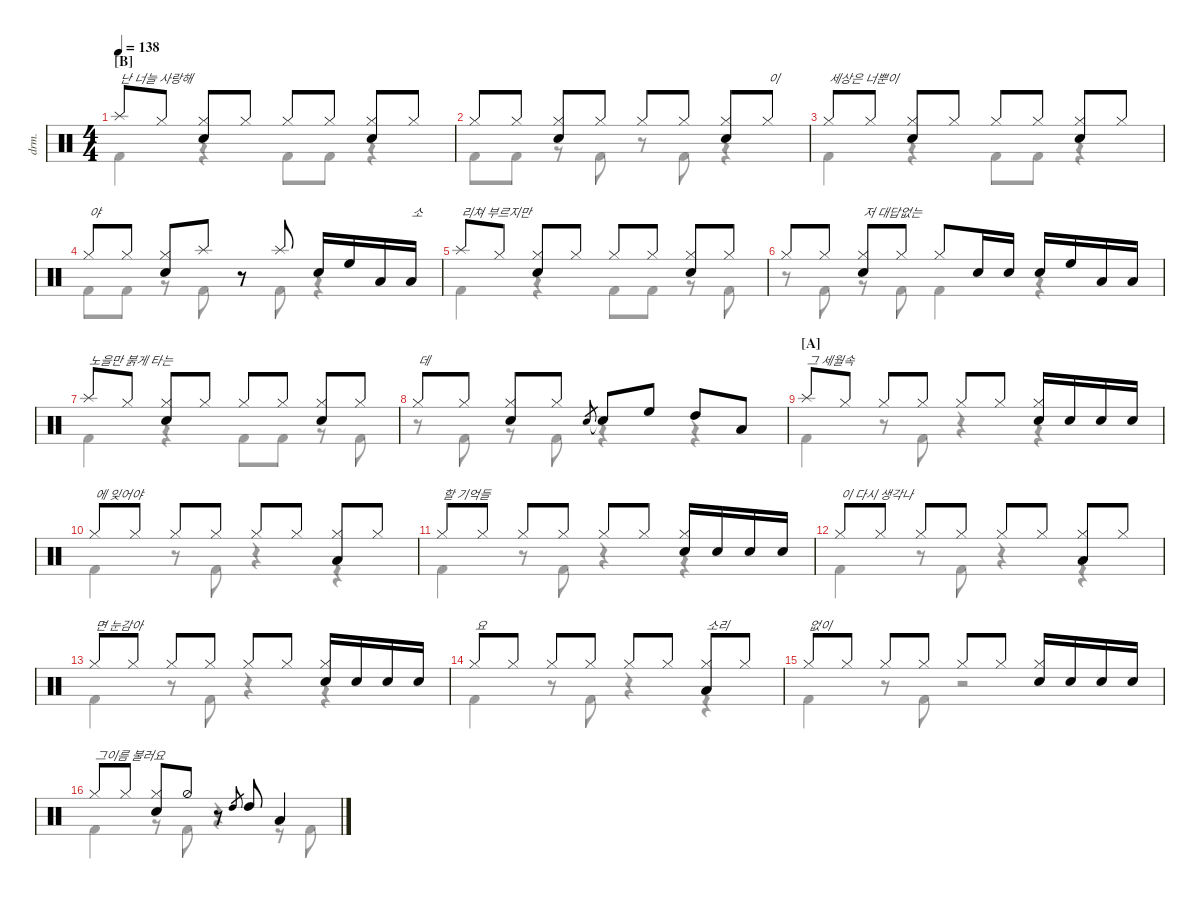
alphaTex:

\defaultSystemsLayout 4
\hideDynamics
\bracketExtendMode nobrackets
\track ("Drumkit" "drm.") {instrument percussion}
\staff {score}
\articulation defaults
\voice
\ts (4 4)
\section ("B" "")
\tempo 138
\clef neutral
\ks c "Splash (hit)".8{txt "난 너늘 사랑해" dy mf} "Hi-Hat (closed)".8
("Hi-Hat (closed)" "Snare (hit) 2").8 "Hi-Hat (closed)".8 "Hi-Hat (closed)".8 "Hi-Hat (closed)".8 ("Hi-Hat (closed)" "Snare (hit) 2").8 "Hi-Hat (closed)".8 |
"Hi-Hat (closed)".8 "Hi-Hat (closed)".8 ("Hi-Hat (closed)" "Snare (hit) 2").8 "Hi-Hat (closed)".8 "Hi-Hat (closed)".8 "Hi-Hat (closed)".8 ("Hi-Hat (closed)" "Snare (hit) 2").8 "Hi-Hat (closed)".8{txt "이"} |
"Hi-Hat (closed)".8{txt "세상은 너뿐이"} "Hi-Hat (closed)".8 ("Hi-Hat (closed)" "Snare (hit) 2").8 "Hi-Hat (closed)".8 "Hi-Hat (closed)".8 "Hi-Hat (closed)".8 ("Hi-Hat (closed)" "Snare (hit) 2").8 "Hi-Hat (closed)".8 |
"Hi-Hat (closed)".8{txt "야"} "Hi-Hat (closed)".8 ("Hi-Hat (closed)" "Snare (hit) 2").8 "Splash (hit)".8 r.8 "Splash (hit)".8 "Snare (hit) 2".16 "High Floor Tom (hit)".16 "Low Tom (hit)".16 "Low Tom (hit)".16{txt "소"} |
"Splash (hit)".8{txt "리쳐 부르지만"} "Hi-Hat (closed)".8 ("Hi-Hat (closed)" "Snare (hit) 2").8 "Hi-Hat (closed)".8 "Hi-Hat (closed)".8 "Hi-Hat (closed)".8 ("Hi-Hat (closed)" "Snare (hit) 2").8 "Hi-Hat (closed)".8 |
"Hi-Hat (closed)".8 "Hi-Hat (closed)".8 ("Hi-Hat (closed)" "Snare (hit) 2").8{txt "저 대답없는"} "Hi-Hat (closed)".8 "Hi-Hat (closed)".8 "Snare (hit) 2".16 "Snare (hit) 2".16 "Snare (hit) 2".16 "High Floor Tom (hit)".16 "Low Tom (hit)".16 "Low Tom (hit)".16 |
"Splash (hit)".8{txt "노을만 붉게 타는"} "Hi-Hat (closed)".8 ("Hi-Hat (closed)" "Snare (hit) 2").8 "Hi-Hat (closed)".8 "Hi-Hat (closed)".8 "Hi-Hat (closed)".8 ("Hi-Hat (closed)" "Snare (hit) 2").8 "Hi-Hat (closed)".8 |
"Hi-Hat (closed)".8{txt "데"} "Hi-Hat (closed)".8 ("Hi-Hat (closed)" "Snare (hit) 2").8 "Hi-Hat (closed)".8 "Snare (hit) 2".8{gr} "Snare (hit) 2"{t}.8 "High Floor Tom (hit)".8 "High Tom (hit)".8 "Low Tom (hit)".8 |
\section ("A" "")
"Splash (hit)".8{txt "그 세월속"} "Hi-Hat (closed)".8 "Hi-Hat (closed)".8 "Hi-Hat (closed)".8 "Hi-Hat (closed)".8 "Hi-Hat (closed)".8 ("Hi-Hat (closed)" "Snare (hit) 2").16 "Snare (hit) 2".16 "Snare (hit) 2".16 "Snare (hit) 2".16 |
"Hi-Hat (closed)".8{txt "에 잊어야"} "Hi-Hat (closed)".8 "Hi-Hat (closed)".8 "Hi-Hat (closed)".8 "Hi-Hat (closed)".8 "Hi-Hat (closed)".8 ("Hi-Hat (closed)" "Low Tom (hit)").8 "Hi-Hat (closed)".8 |
"Hi-Hat (closed)".8{txt "할 기억들"} "Hi-Hat (closed)".8 "Hi-Hat (closed)".8 "Hi-Hat (closed)".8 "Hi-Hat (closed)".8 "Hi-Hat (closed)".8 ("Hi-Hat (closed)" "Snare (hit) 2").16 "Snare (hit) 2".16 "Snare (hit) 2".16 "Snare (hit) 2".16 |
"Hi-Hat (closed)".8{txt "이 다시 생각나"} "Hi-Hat (closed)".8 "Hi-Hat (closed)".8 "Hi-Hat (closed)".8 "Hi-Hat (closed)".8 "Hi-Hat (closed)".8 ("Hi-Hat (closed)" "Low Tom (hit)").8 "Hi-Hat (closed)".8 |
"Hi-Hat (closed)".8{txt "면 눈감아"} "Hi-Hat (closed)".8 "Hi-Hat (closed)".8 "Hi-Hat (closed)".8 "Hi-Hat (closed)".8 "Hi-Hat (closed)".8 ("Hi-Hat (closed)" "Snare (hit) 2").16 "Snare (hit) 2".16 "Snare (hit) 2".16 "Snare (hit) 2".16 |
"Hi-Hat (closed)".8{txt "요 "} "Hi-Hat (closed)".8 "Hi-Hat (closed)".8 "Hi-Hat (closed)".8 "Hi-Hat (closed)".8 "Hi-Hat (closed)".8 ("Hi-Hat (closed)" "Low Tom (hit)").8{txt "소리"} "Hi-Hat (closed)".8 |
"Hi-Hat (closed)".8{txt "없이"} "Hi-Hat (closed)".8 "Hi-Hat (closed)".8 "Hi-Hat (closed)".8 "Hi-Hat (closed)".8 "Hi-Hat (closed)".8 ("Hi-Hat (closed)" "Snare (hit) 2").16 "Snare (hit) 2".16 "Snare (hit) 2".16 "Snare (hit) 2".16 |
"Hi-Hat (closed)".8{txt "그이름 불러요"} "Hi-Hat (closed)".8 ("Hi-Hat (closed)" "Snare (hit) 2").8 "Hi-Hat (half)".8 r.8 "High Tom (hit)".8{gr} "High Tom (hit)".8 "Low Tom (hit)".4
\voice
\clef neutral
\ottava regular
\simile none
\ks c
|
|
|
|
|
|
|
|
|
|
|
|
|
|
|
\voice
\clef neutral
\ottava regular
\simile none
\ks c "Kick (hit) 2".4{dy mf}
r.4 "Kick (hit) 2".8 "Kick (hit) 2".8 r.4 |
"Kick (hit) 2".8 "Kick (hit) 2".8 r.8 "Kick (hit) 2".8 r.8 "Kick (hit) 2".8 r.4 |
"Kick (hit) 2".4 r.4 "Kick (hit) 2".8 "Kick (hit) 2".8 r.4 |
"Kick (hit) 2".8 "Kick (hit) 2".8 r.8 "Kick (hit) 2".8 r.8 "Kick (hit) 2".8 r.4 |
"Kick (hit) 2".4 r.4 "Kick (hit) 2".8 "Kick (hit) 2".8 r.8 "Kick (hit) 2".8 |
r.8 "Kick (hit) 2".8 r.8 "Kick (hit) 2".8 "Kick (hit) 2".4 r.4 |
"Kick (hit) 2".4 r.4 "Kick (hit) 2".8 "Kick (hit) 2".8 r.8 "Kick (hit) 2".8 |
r.8 "Kick (hit) 2".8 r.8 "Kick (hit) 2".8 r.4 r.4 |
"Kick (hit) 2".4 r.8 "Kick (hit) 2".8 r.4 r.4 |
"Kick (hit) 2".4 r.8 "Kick (hit) 2".8 r.4 r.4 |
"Kick (hit) 2".4 r.8 "Kick (hit) 2".8 r.4 r.4 |
"Kick (hit) 2".4 r.8 "Kick (hit) 2".8 r.4 r.4 |
"Kick (hit) 2".4 r.8 "Kick (hit) 2".8 r.4 r.4 |
"Kick (hit) 2".4 r.8 "Kick (hit) 2".8 r.4 r.4 |
"Kick (hit) 2".4 r.8 "Kick (hit) 2".8 r.2 |
"Kick (hit) 2".4 r.8 "Kick (hit) 2".8 r.4 r.8 "Kick (hit) 2".8
